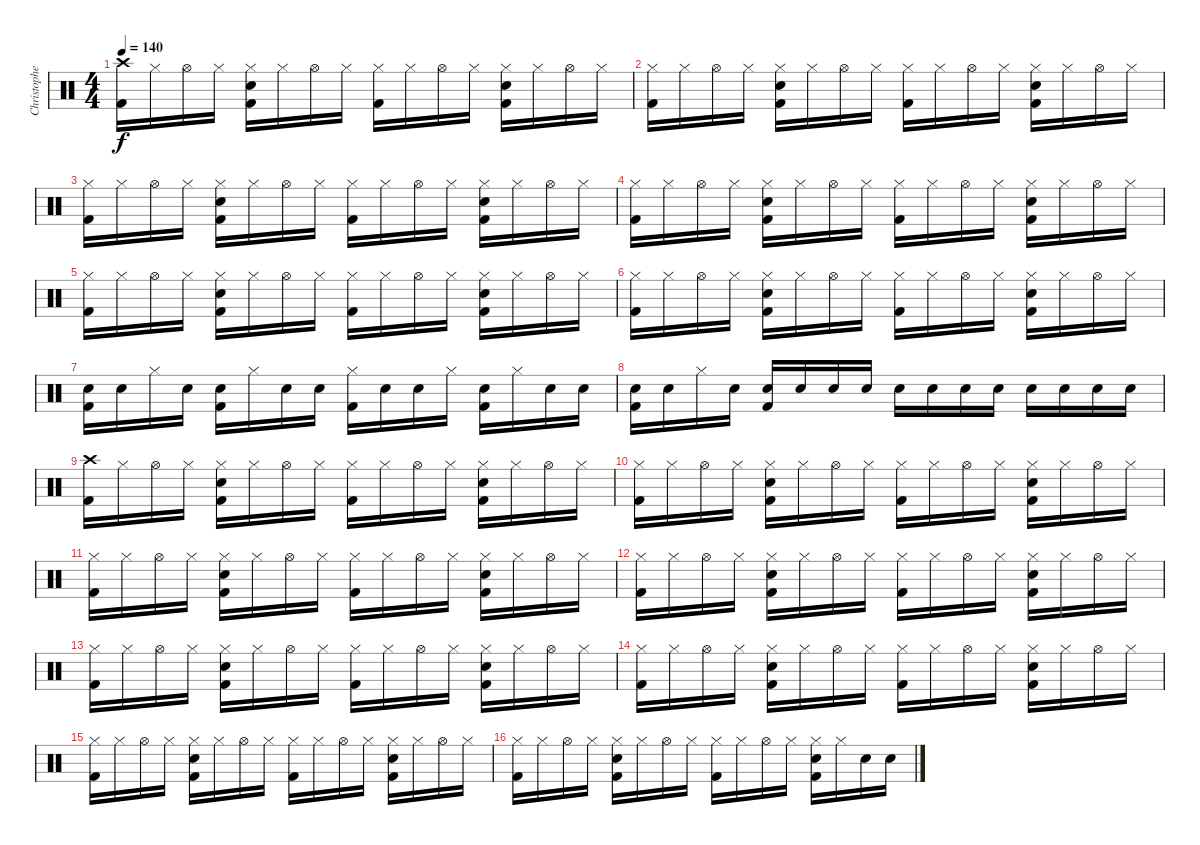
\track ("Christopher Lawrence " "Christophe") {instrument percussion}
\staff {score}
\articulation defaults
\ts (4 4)
\tempo 140
\clef neutral
\ks c
("Crash high (hit)" "Kick (hit) 2").16{dy f} "Hi-Hat (closed)".16 "Hi-Hat (open)".16 "Hi-Hat (closed)".16 ("Hi-Hat (closed)" "Hand Clap (hit)" "Kick (hit) 2").16 "Hi-Hat (closed)".16 "Hi-Hat (open)".16 "Hi-Hat (closed)".16 ("Hi-Hat (closed)" "Kick (hit) 2").16 "Hi-Hat (closed)".16 "Hi-Hat (open)".16 "Hi-Hat (closed)".16 ("Hi-Hat (closed)" "Hand Clap (hit)" "Kick (hit) 2").16 "Hi-Hat (closed)".16 "Hi-Hat (open)".16 "Hi-Hat (closed)".16 |
("Hi-Hat (closed)" "Kick (hit) 2").16 "Hi-Hat (closed)".16 "Hi-Hat (open)".16 "Hi-Hat (closed)".16 ("Hi-Hat (closed)" "Hand Clap (hit)" "Kick (hit) 2").16 "Hi-Hat (closed)".16 "Hi-Hat (open)".16 "Hi-Hat (closed)".16 ("Hi-Hat (closed)" "Kick (hit) 2").16 "Hi-Hat (closed)".16 "Hi-Hat (open)".16 "Hi-Hat (closed)".16 ("Hi-Hat (closed)" "Hand Clap (hit)" "Kick (hit) 2").16 "Hi-Hat (closed)".16 "Hi-Hat (open)".16 "Hi-Hat (closed)".16 |
("Hi-Hat (closed)" "Kick (hit) 2").16 "Hi-Hat (closed)".16 "Hi-Hat (open)".16 "Hi-Hat (closed)".16 ("Hi-Hat (closed)" "Hand Clap (hit)" "Kick (hit) 2").16 "Hi-Hat (closed)".16 "Hi-Hat (open)".16 "Hi-Hat (closed)".16 ("Hi-Hat (closed)" "Kick (hit) 2").16 "Hi-Hat (closed)".16 "Hi-Hat (open)".16 "Hi-Hat (closed)".16 ("Hi-Hat (closed)" "Hand Clap (hit)" "Kick (hit) 2").16 "Hi-Hat (closed)".16 "Hi-Hat (open)".16 "Hi-Hat (closed)".16 |
("Hi-Hat (closed)" "Kick (hit) 2").16 "Hi-Hat (closed)".16 "Hi-Hat (open)".16 "Hi-Hat (closed)".16 ("Hi-Hat (closed)" "Hand Clap (hit)" "Kick (hit) 2").16 "Hi-Hat (closed)".16 "Hi-Hat (open)".16 "Hi-Hat (closed)".16 ("Hi-Hat (closed)" "Kick (hit) 2").16 "Hi-Hat (closed)".16 "Hi-Hat (open)".16 "Hi-Hat (closed)".16 ("Hi-Hat (closed)" "Hand Clap (hit)" "Kick (hit) 2").16 "Hi-Hat (closed)".16 "Hi-Hat (open)".16 "Hi-Hat (closed)".16 |
("Hi-Hat (closed)" "Kick (hit) 2").16 "Hi-Hat (closed)".16 "Hi-Hat (open)".16 "Hi-Hat (closed)".16 ("Hi-Hat (closed)" "Hand Clap (hit)" "Kick (hit) 2").16 "Hi-Hat (closed)".16 "Hi-Hat (open)".16 "Hi-Hat (closed)".16 ("Hi-Hat (closed)" "Kick (hit) 2").16 "Hi-Hat (closed)".16 "Hi-Hat (open)".16 "Hi-Hat (closed)".16 ("Hi-Hat (closed)" "Hand Clap (hit)" "Kick (hit) 2").16 "Hi-Hat (closed)".16 "Hi-Hat (open)".16 "Hi-Hat (closed)".16 |
("Hi-Hat (closed)" "Kick (hit) 2").16 "Hi-Hat (closed)".16 "Hi-Hat (open)".16 "Hi-Hat (closed)".16 ("Hi-Hat (closed)" "Hand Clap (hit)" "Kick (hit) 2").16 "Hi-Hat (closed)".16 "Hi-Hat (open)".16 "Hi-Hat (closed)".16 ("Hi-Hat (closed)" "Kick (hit) 2").16 "Hi-Hat (closed)".16 "Hi-Hat (open)".16 "Hi-Hat (closed)".16 ("Hi-Hat (closed)" "Hand Clap (hit)" "Kick (hit) 2").16 "Hi-Hat (closed)".16 "Hi-Hat (open)".16 "Hi-Hat (closed)".16 |
("Snare (hit) 2" "Kick (hit) 2").16 "Snare (hit) 2".16 "Hi-Hat (closed)".16 "Snare (hit) 2".16 ("Snare (hit) 2" "Kick (hit) 2").16 "Hi-Hat (closed)".16 "Snare (hit) 2".16 "Snare (hit) 2".16 ("Hi-Hat (closed)" "Kick (hit) 2").16 "Snare (hit) 2".16 "Snare (hit) 2".16 "Hi-Hat (closed)".16 ("Snare (hit) 2" "Kick (hit) 2").16 "Hi-Hat (closed)".16 "Snare (hit) 2".16 "Snare (hit) 2".16 |
("Snare (hit) 2" "Kick (hit) 2").16 "Snare (hit) 2".16 "Hi-Hat (closed)".16 "Snare (hit) 2".16 ("Snare (hit) 2" "Kick (hit) 2").16 "Snare (hit) 2".16 "Snare (hit) 2".16 "Snare (hit) 2".16 "Snare (hit) 2".16 "Snare (hit) 2".16 "Snare (hit) 2".16 "Snare (hit) 2".16 "Snare (hit) 2".16 "Snare (hit) 2".16 "Snare (hit) 2".16 "Snare (hit) 2".16 |
("Crash high (hit)" "Kick (hit) 2").16 "Hi-Hat (closed)".16 "Hi-Hat (open)".16 "Hi-Hat (closed)".16 ("Hi-Hat (closed)" "Hand Clap (hit)" "Kick (hit) 2").16 "Hi-Hat (closed)".16 "Hi-Hat (open)".16 "Hi-Hat (closed)".16 ("Hi-Hat (closed)" "Kick (hit) 2").16 "Hi-Hat (closed)".16 "Hi-Hat (open)".16 "Hi-Hat (closed)".16 ("Hi-Hat (closed)" "Hand Clap (hit)" "Kick (hit) 2").16 "Hi-Hat (closed)".16 "Hi-Hat (open)".16 "Hi-Hat (closed)".16 |
("Hi-Hat (closed)" "Kick (hit) 2").16 "Hi-Hat (closed)".16 "Hi-Hat (open)".16 "Hi-Hat (closed)".16 ("Hi-Hat (closed)" "Hand Clap (hit)" "Kick (hit) 2").16 "Hi-Hat (closed)".16 "Hi-Hat (open)".16 "Hi-Hat (closed)".16 ("Hi-Hat (closed)" "Kick (hit) 2").16 "Hi-Hat (closed)".16 "Hi-Hat (open)".16 "Hi-Hat (closed)".16 ("Hi-Hat (closed)" "Hand Clap (hit)" "Kick (hit) 2").16 "Hi-Hat (closed)".16 "Hi-Hat (open)".16 "Hi-Hat (closed)".16 |
("Hi-Hat (closed)" "Kick (hit) 2").16 "Hi-Hat (closed)".16 "Hi-Hat (open)".16 "Hi-Hat (closed)".16 ("Hi-Hat (closed)" "Hand Clap (hit)" "Kick (hit) 2").16 "Hi-Hat (closed)".16 "Hi-Hat (open)".16 "Hi-Hat (closed)".16 ("Hi-Hat (closed)" "Kick (hit) 2").16 "Hi-Hat (closed)".16 "Hi-Hat (open)".16 "Hi-Hat (closed)".16 ("Hi-Hat (closed)" "Hand Clap (hit)" "Kick (hit) 2").16 "Hi-Hat (closed)".16 "Hi-Hat (open)".16 "Hi-Hat (closed)".16 |
("Hi-Hat (closed)" "Kick (hit) 2").16 "Hi-Hat (closed)".16 "Hi-Hat (open)".16 "Hi-Hat (closed)".16 ("Hi-Hat (closed)" "Hand Clap (hit)" "Kick (hit) 2").16 "Hi-Hat (closed)".16 "Hi-Hat (open)".16 "Hi-Hat (closed)".16 ("Hi-Hat (closed)" "Kick (hit) 2").16 "Hi-Hat (closed)".16 "Hi-Hat (open)".16 "Hi-Hat (closed)".16 ("Hi-Hat (closed)" "Hand Clap (hit)" "Kick (hit) 2").16 "Hi-Hat (closed)".16 "Hi-Hat (open)".16 "Hi-Hat (closed)".16 |
("Hi-Hat (closed)" "Kick (hit) 2").16 "Hi-Hat (closed)".16 "Hi-Hat (open)".16 "Hi-Hat (closed)".16 ("Hi-Hat (closed)" "Hand Clap (hit)" "Kick (hit) 2").16 "Hi-Hat (closed)".16 "Hi-Hat (open)".16 "Hi-Hat (closed)".16 ("Hi-Hat (closed)" "Kick (hit) 2").16 "Hi-Hat (closed)".16 "Hi-Hat (open)".16 "Hi-Hat (closed)".16 ("Hi-Hat (closed)" "Hand Clap (hit)" "Kick (hit) 2").16 "Hi-Hat (closed)".16 "Hi-Hat (open)".16 "Hi-Hat (closed)".16 |
("Hi-Hat (closed)" "Kick (hit) 2").16 "Hi-Hat (closed)".16 "Hi-Hat (open)".16 "Hi-Hat (closed)".16 ("Hi-Hat (closed)" "Hand Clap (hit)" "Kick (hit) 2").16 "Hi-Hat (closed)".16 "Hi-Hat (open)".16 "Hi-Hat (closed)".16 ("Hi-Hat (closed)" "Kick (hit) 2").16 "Hi-Hat (closed)".16 "Hi-Hat (open)".16 "Hi-Hat (closed)".16 ("Hi-Hat (closed)" "Hand Clap (hit)" "Kick (hit) 2").16 "Hi-Hat (closed)".16 "Hi-Hat (open)".16 "Hi-Hat (closed)".16 |
("Hi-Hat (closed)" "Kick (hit) 2").16 "Hi-Hat (closed)".16 "Hi-Hat (open)".16 "Hi-Hat (closed)".16 ("Hi-Hat (closed)" "Hand Clap (hit)" "Kick (hit) 2").16 "Hi-Hat (closed)".16 "Hi-Hat (open)".16 "Hi-Hat (closed)".16 ("Hi-Hat (closed)" "Kick (hit) 2").16 "Hi-Hat (closed)".16 "Hi-Hat (open)".16 "Hi-Hat (closed)".16 ("Hi-Hat (closed)" "Hand Clap (hit)" "Kick (hit) 2").16 "Hi-Hat (closed)".16 "Hi-Hat (open)".16 "Hi-Hat (closed)".16 |
("Hi-Hat (closed)" "Kick (hit) 2").16 "Hi-Hat (closed)".16 "Hi-Hat (open)".16 "Hi-Hat (closed)".16 ("Hi-Hat (closed)" "Hand Clap (hit)" "Kick (hit) 2").16 "Hi-Hat (closed)".16 "Hi-Hat (open)".16 "Hi-Hat (closed)".16 ("Hi-Hat (closed)" "Kick (hit) 2").16 "Hi-Hat (closed)".16 "Hi-Hat (open)".16 "Hi-Hat (closed)".16 ("Hi-Hat (closed)" "Hand Clap (hit)" "Kick (hit) 2").16 "Hi-Hat (closed)".16 "Snare (hit) 2".16 "Snare (hit) 2".16
